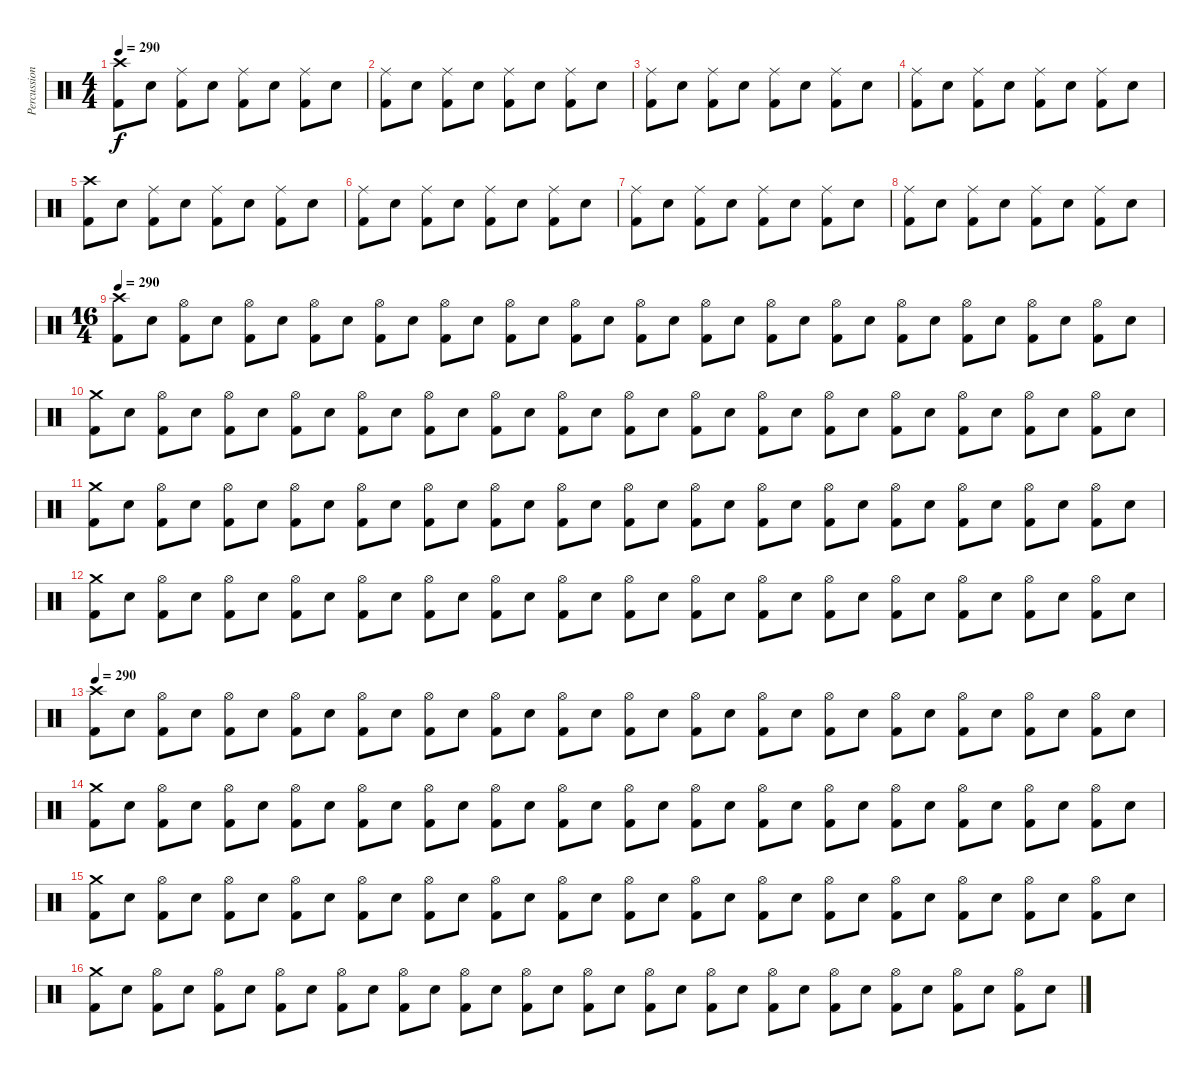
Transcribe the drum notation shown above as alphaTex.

\track ("Percussion" "Percussion") {instrument percussion}
\staff {score}
\articulation defaults
\ts (4 4)
\tempo 290
\clef neutral
\ks c
("Crash high (hit)" "Kick (hit) 2").8{dy f} "Snare (hit) 2".8 ("Ride (middle)" "Kick (hit) 2").8 "Snare (hit) 2".8 ("Ride (middle)" "Kick (hit) 2").8 "Snare (hit) 2".8 ("Ride (middle)" "Kick (hit) 2").8 "Snare (hit) 2".8 |
("Ride (middle)" "Kick (hit) 2").8 "Snare (hit) 2".8 ("Ride (middle)" "Kick (hit) 2").8 "Snare (hit) 2".8 ("Ride (middle)" "Kick (hit) 2").8 "Snare (hit) 2".8 ("Ride (middle)" "Kick (hit) 2").8 "Snare (hit) 2".8 |
("Ride (middle)" "Kick (hit) 2").8 "Snare (hit) 2".8 ("Ride (middle)" "Kick (hit) 2").8 "Snare (hit) 2".8 ("Ride (middle)" "Kick (hit) 2").8 "Snare (hit) 2".8 ("Ride (middle)" "Kick (hit) 2").8 "Snare (hit) 2".8 |
("Ride (middle)" "Kick (hit) 2").8 "Snare (hit) 2".8 ("Ride (middle)" "Kick (hit) 2").8 "Snare (hit) 2".8 ("Ride (middle)" "Kick (hit) 2").8 "Snare (hit) 2".8 ("Ride (middle)" "Kick (hit) 2").8 "Snare (hit) 2".8 |
("Crash high (hit)" "Kick (hit) 2").8 "Snare (hit) 2".8 ("Ride (middle)" "Kick (hit) 2").8 "Snare (hit) 2".8 ("Ride (middle)" "Kick (hit) 2").8 "Snare (hit) 2".8 ("Ride (middle)" "Kick (hit) 2").8 "Snare (hit) 2".8 |
("Ride (middle)" "Kick (hit) 2").8 "Snare (hit) 2".8 ("Ride (middle)" "Kick (hit) 2").8 "Snare (hit) 2".8 ("Ride (middle)" "Kick (hit) 2").8 "Snare (hit) 2".8 ("Ride (middle)" "Kick (hit) 2").8 "Snare (hit) 2".8 |
("Ride (middle)" "Kick (hit) 2").8 "Snare (hit) 2".8 ("Ride (middle)" "Kick (hit) 2").8 "Snare (hit) 2".8 ("Ride (middle)" "Kick (hit) 2").8 "Snare (hit) 2".8 ("Ride (middle)" "Kick (hit) 2").8 "Snare (hit) 2".8 |
("Ride (middle)" "Kick (hit) 2").8 "Snare (hit) 2".8 ("Ride (middle)" "Kick (hit) 2").8 "Snare (hit) 2".8 ("Ride (middle)" "Kick (hit) 2").8 "Snare (hit) 2".8 ("Ride (middle)" "Kick (hit) 2").8 "Snare (hit) 2".8 |
\ts (16 4)
\tempo 290
("Crash high (hit)" "Kick (hit) 2").8 "Snare (hit) 2".8 ("Hi-Hat (open)" "Kick (hit) 2").8 "Snare (hit) 2".8 ("Hi-Hat (open)" "Kick (hit) 2").8 "Snare (hit) 2".8 ("Hi-Hat (open)" "Kick (hit) 2").8 "Snare (hit) 2".8 ("Hi-Hat (open)" "Kick (hit) 2").8 "Snare (hit) 2".8 ("Hi-Hat (open)" "Kick (hit) 2").8 "Snare (hit) 2".8 ("Hi-Hat (open)" "Kick (hit) 2").8 "Snare (hit) 2".8 ("Hi-Hat (open)" "Kick (hit) 2").8 "Snare (hit) 2".8 ("Hi-Hat (open)" "Kick (hit) 2").8 "Snare (hit) 2".8 ("Hi-Hat (open)" "Kick (hit) 2").8 "Snare (hit) 2".8 ("Hi-Hat (open)" "Kick (hit) 2").8 "Snare (hit) 2".8 ("Hi-Hat (open)" "Kick (hit) 2").8 "Snare (hit) 2".8 ("Hi-Hat (open)" "Kick (hit) 2").8 "Snare (hit) 2".8 ("Hi-Hat (open)" "Kick (hit) 2").8 "Snare (hit) 2".8 ("Hi-Hat (open)" "Kick (hit) 2").8 "Snare (hit) 2".8 ("Hi-Hat (open)" "Kick (hit) 2").8 "Snare (hit) 2".8 |
("Crash medium (hit)" "Kick (hit) 2").8 "Snare (hit) 2".8 ("Hi-Hat (open)" "Kick (hit) 2").8 "Snare (hit) 2".8 ("Hi-Hat (open)" "Kick (hit) 2").8 "Snare (hit) 2".8 ("Hi-Hat (open)" "Kick (hit) 2").8 "Snare (hit) 2".8 ("Hi-Hat (open)" "Kick (hit) 2").8 "Snare (hit) 2".8 ("Hi-Hat (open)" "Kick (hit) 2").8 "Snare (hit) 2".8 ("Hi-Hat (open)" "Kick (hit) 2").8 "Snare (hit) 2".8 ("Hi-Hat (open)" "Kick (hit) 2").8 "Snare (hit) 2".8 ("Hi-Hat (open)" "Kick (hit) 2").8 "Snare (hit) 2".8 ("Hi-Hat (open)" "Kick (hit) 2").8 "Snare (hit) 2".8 ("Hi-Hat (open)" "Kick (hit) 2").8 "Snare (hit) 2".8 ("Hi-Hat (open)" "Kick (hit) 2").8 "Snare (hit) 2".8 ("Hi-Hat (open)" "Kick (hit) 2").8 "Snare (hit) 2".8 ("Hi-Hat (open)" "Kick (hit) 2").8 "Snare (hit) 2".8 ("Hi-Hat (open)" "Kick (hit) 2").8 "Snare (hit) 2".8 ("Hi-Hat (open)" "Kick (hit) 2").8 "Snare (hit) 2".8 |
("Crash medium (hit)" "Kick (hit) 2").8 "Snare (hit) 2".8 ("Hi-Hat (open)" "Kick (hit) 2").8 "Snare (hit) 2".8 ("Hi-Hat (open)" "Kick (hit) 2").8 "Snare (hit) 2".8 ("Hi-Hat (open)" "Kick (hit) 2").8 "Snare (hit) 2".8 ("Hi-Hat (open)" "Kick (hit) 2").8 "Snare (hit) 2".8 ("Hi-Hat (open)" "Kick (hit) 2").8 "Snare (hit) 2".8 ("Hi-Hat (open)" "Kick (hit) 2").8 "Snare (hit) 2".8 ("Hi-Hat (open)" "Kick (hit) 2").8 "Snare (hit) 2".8 ("Hi-Hat (open)" "Kick (hit) 2").8 "Snare (hit) 2".8 ("Hi-Hat (open)" "Kick (hit) 2").8 "Snare (hit) 2".8 ("Hi-Hat (open)" "Kick (hit) 2").8 "Snare (hit) 2".8 ("Hi-Hat (open)" "Kick (hit) 2").8 "Snare (hit) 2".8 ("Hi-Hat (open)" "Kick (hit) 2").8 "Snare (hit) 2".8 ("Hi-Hat (open)" "Kick (hit) 2").8 "Snare (hit) 2".8 ("Hi-Hat (open)" "Kick (hit) 2").8 "Snare (hit) 2".8 ("Hi-Hat (open)" "Kick (hit) 2").8 "Snare (hit) 2".8 |
("Crash medium (hit)" "Kick (hit) 2").8 "Snare (hit) 2".8 ("Hi-Hat (open)" "Kick (hit) 2").8 "Snare (hit) 2".8 ("Hi-Hat (open)" "Kick (hit) 2").8 "Snare (hit) 2".8 ("Hi-Hat (open)" "Kick (hit) 2").8 "Snare (hit) 2".8 ("Hi-Hat (open)" "Kick (hit) 2").8 "Snare (hit) 2".8 ("Hi-Hat (open)" "Kick (hit) 2").8 "Snare (hit) 2".8 ("Hi-Hat (open)" "Kick (hit) 2").8 "Snare (hit) 2".8 ("Hi-Hat (open)" "Kick (hit) 2").8 "Snare (hit) 2".8 ("Hi-Hat (open)" "Kick (hit) 2").8 "Snare (hit) 2".8 ("Hi-Hat (open)" "Kick (hit) 2").8 "Snare (hit) 2".8 ("Hi-Hat (open)" "Kick (hit) 2").8 "Snare (hit) 2".8 ("Hi-Hat (open)" "Kick (hit) 2").8 "Snare (hit) 2".8 ("Hi-Hat (open)" "Kick (hit) 2").8 "Snare (hit) 2".8 ("Hi-Hat (open)" "Kick (hit) 2").8 "Snare (hit) 2".8 ("Hi-Hat (open)" "Kick (hit) 2").8 "Snare (hit) 2".8 ("Hi-Hat (open)" "Kick (hit) 2").8 "Snare (hit) 2".8 |
\tempo 290
("Crash high (hit)" "Kick (hit) 2").8 "Snare (hit) 2".8 ("Hi-Hat (open)" "Kick (hit) 2").8 "Snare (hit) 2".8 ("Hi-Hat (open)" "Kick (hit) 2").8 "Snare (hit) 2".8 ("Hi-Hat (open)" "Kick (hit) 2").8 "Snare (hit) 2".8 ("Hi-Hat (open)" "Kick (hit) 2").8 "Snare (hit) 2".8 ("Hi-Hat (open)" "Kick (hit) 2").8 "Snare (hit) 2".8 ("Hi-Hat (open)" "Kick (hit) 2").8 "Snare (hit) 2".8 ("Hi-Hat (open)" "Kick (hit) 2").8 "Snare (hit) 2".8 ("Hi-Hat (open)" "Kick (hit) 2").8 "Snare (hit) 2".8 ("Hi-Hat (open)" "Kick (hit) 2").8 "Snare (hit) 2".8 ("Hi-Hat (open)" "Kick (hit) 2").8 "Snare (hit) 2".8 ("Hi-Hat (open)" "Kick (hit) 2").8 "Snare (hit) 2".8 ("Hi-Hat (open)" "Kick (hit) 2").8 "Snare (hit) 2".8 ("Hi-Hat (open)" "Kick (hit) 2").8 "Snare (hit) 2".8 ("Hi-Hat (open)" "Kick (hit) 2").8 "Snare (hit) 2".8 ("Hi-Hat (open)" "Kick (hit) 2").8 "Snare (hit) 2".8 |
("Crash medium (hit)" "Kick (hit) 2").8 "Snare (hit) 2".8 ("Hi-Hat (open)" "Kick (hit) 2").8 "Snare (hit) 2".8 ("Hi-Hat (open)" "Kick (hit) 2").8 "Snare (hit) 2".8 ("Hi-Hat (open)" "Kick (hit) 2").8 "Snare (hit) 2".8 ("Hi-Hat (open)" "Kick (hit) 2").8 "Snare (hit) 2".8 ("Hi-Hat (open)" "Kick (hit) 2").8 "Snare (hit) 2".8 ("Hi-Hat (open)" "Kick (hit) 2").8 "Snare (hit) 2".8 ("Hi-Hat (open)" "Kick (hit) 2").8 "Snare (hit) 2".8 ("Hi-Hat (open)" "Kick (hit) 2").8 "Snare (hit) 2".8 ("Hi-Hat (open)" "Kick (hit) 2").8 "Snare (hit) 2".8 ("Hi-Hat (open)" "Kick (hit) 2").8 "Snare (hit) 2".8 ("Hi-Hat (open)" "Kick (hit) 2").8 "Snare (hit) 2".8 ("Hi-Hat (open)" "Kick (hit) 2").8 "Snare (hit) 2".8 ("Hi-Hat (open)" "Kick (hit) 2").8 "Snare (hit) 2".8 ("Hi-Hat (open)" "Kick (hit) 2").8 "Snare (hit) 2".8 ("Hi-Hat (open)" "Kick (hit) 2").8 "Snare (hit) 2".8 |
("Crash medium (hit)" "Kick (hit) 2").8 "Snare (hit) 2".8 ("Hi-Hat (open)" "Kick (hit) 2").8 "Snare (hit) 2".8 ("Hi-Hat (open)" "Kick (hit) 2").8 "Snare (hit) 2".8 ("Hi-Hat (open)" "Kick (hit) 2").8 "Snare (hit) 2".8 ("Hi-Hat (open)" "Kick (hit) 2").8 "Snare (hit) 2".8 ("Hi-Hat (open)" "Kick (hit) 2").8 "Snare (hit) 2".8 ("Hi-Hat (open)" "Kick (hit) 2").8 "Snare (hit) 2".8 ("Hi-Hat (open)" "Kick (hit) 2").8 "Snare (hit) 2".8 ("Hi-Hat (open)" "Kick (hit) 2").8 "Snare (hit) 2".8 ("Hi-Hat (open)" "Kick (hit) 2").8 "Snare (hit) 2".8 ("Hi-Hat (open)" "Kick (hit) 2").8 "Snare (hit) 2".8 ("Hi-Hat (open)" "Kick (hit) 2").8 "Snare (hit) 2".8 ("Hi-Hat (open)" "Kick (hit) 2").8 "Snare (hit) 2".8 ("Hi-Hat (open)" "Kick (hit) 2").8 "Snare (hit) 2".8 ("Hi-Hat (open)" "Kick (hit) 2").8 "Snare (hit) 2".8 ("Hi-Hat (open)" "Kick (hit) 2").8 "Snare (hit) 2".8 |
("Crash medium (hit)" "Kick (hit) 2").8 "Snare (hit) 2".8 ("Hi-Hat (open)" "Kick (hit) 2").8 "Snare (hit) 2".8 ("Hi-Hat (open)" "Kick (hit) 2").8 "Snare (hit) 2".8 ("Hi-Hat (open)" "Kick (hit) 2").8 "Snare (hit) 2".8 ("Hi-Hat (open)" "Kick (hit) 2").8 "Snare (hit) 2".8 ("Hi-Hat (open)" "Kick (hit) 2").8 "Snare (hit) 2".8 ("Hi-Hat (open)" "Kick (hit) 2").8 "Snare (hit) 2".8 ("Hi-Hat (open)" "Kick (hit) 2").8 "Snare (hit) 2".8 ("Hi-Hat (open)" "Kick (hit) 2").8 "Snare (hit) 2".8 ("Hi-Hat (open)" "Kick (hit) 2").8 "Snare (hit) 2".8 ("Hi-Hat (open)" "Kick (hit) 2").8 "Snare (hit) 2".8 ("Hi-Hat (open)" "Kick (hit) 2").8 "Snare (hit) 2".8 ("Hi-Hat (open)" "Kick (hit) 2").8 "Snare (hit) 2".8 ("Hi-Hat (open)" "Kick (hit) 2").8 "Snare (hit) 2".8 ("Hi-Hat (open)" "Kick (hit) 2").8 "Snare (hit) 2".8 ("Hi-Hat (open)" "Kick (hit) 2").8 "Snare (hit) 2".8
